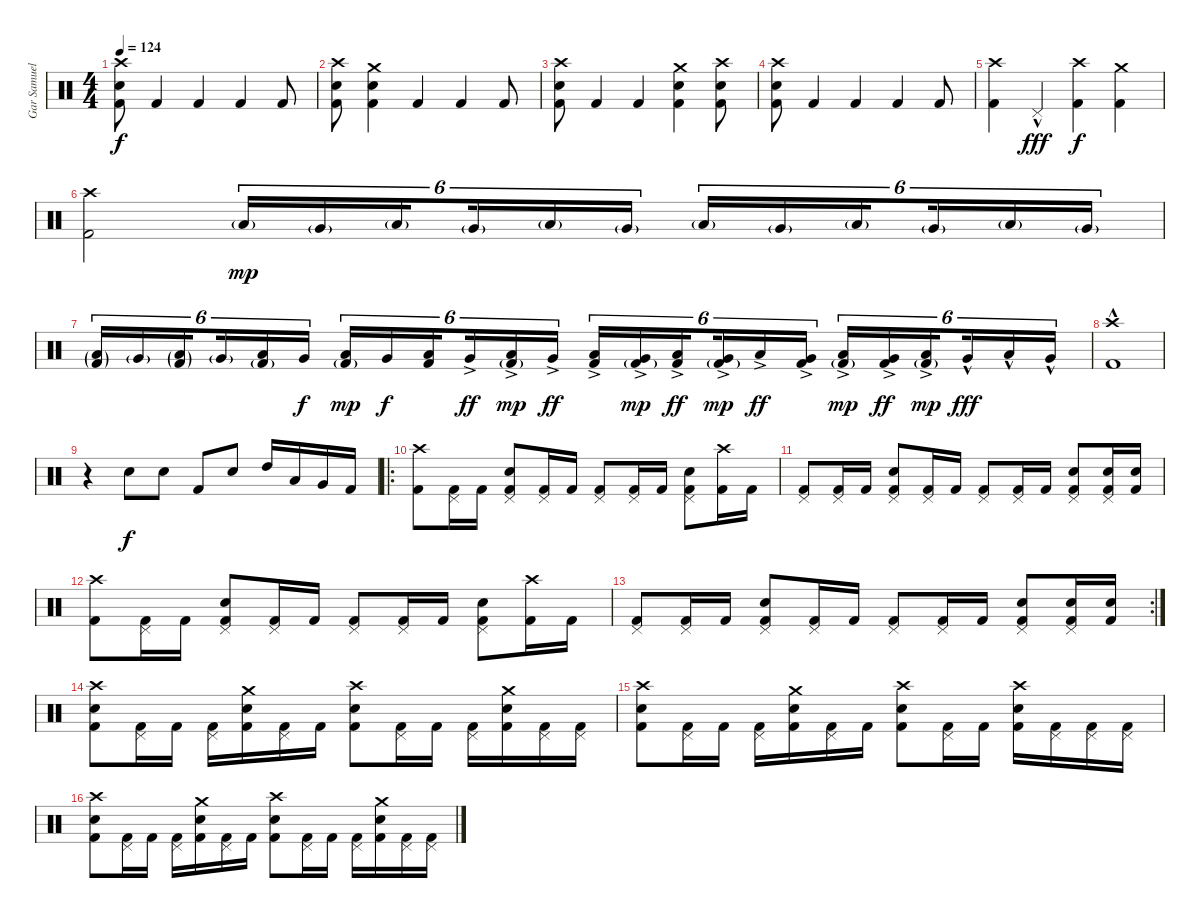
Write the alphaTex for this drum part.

\track ("Gar Samuelson" "Gar Samuel") {instrument percussion}
\staff {score}
\articulation defaults
\ts (4 4)
\tempo 124
\clef neutral
\ks c
("Crash high (hit)" "Electric Snare (hit)" "Kick (hit) 2").8{dy f} "Kick (hit) 2".4 "Kick (hit) 2".4 "Kick (hit) 2".4 "Kick (hit) 2".8 |
("Crash high (hit)" "Electric Snare (hit)" "Kick (hit) 2").8 ("Crash medium (hit)" "Electric Snare (hit)" "Kick (hit) 2").4 "Kick (hit) 2".4 "Kick (hit) 2".4 "Kick (hit) 2".8 |
("Crash high (hit)" "Electric Snare (hit)" "Kick (hit) 2").8 "Kick (hit) 2".4 "Kick (hit) 2".4 ("Crash medium (hit)" "Electric Snare (hit)" "Kick (hit) 2").4 ("Crash high (hit)" "Electric Snare (hit)" "Kick (hit) 2").8 |
("Crash high (hit)" "Electric Snare (hit)" "Kick (hit) 2").8 "Kick (hit) 2".4 "Kick (hit) 2".4 "Kick (hit) 2".4 "Kick (hit) 2".8 |
("Crash high (hit)" "Kick (hit) 2").4 "Pedal Hi-Hat (hit)"{hac}.4{dy fff} ("Crash high (hit)" "Kick (hit) 2").4{dy f} ("Crash medium (hit)" "Kick (hit) 2").4 |
("Crash high (hit)" "Kick (hit) 2").2 "Low Floor Tom (hit)"{g}.16{tu (6 4) dy mp} "Very Low Tom (hit)"{g}.16{tu (6 4)} "Low Floor Tom (hit)"{g}.16{tu (6 4) beam splitsecondary} "Very Low Tom (hit)"{g}.16{tu (6 4)} "Low Floor Tom (hit)"{g}.16{tu (6 4)} "Very Low Tom (hit)"{g}.16{tu (6 4)} "Low Floor Tom (hit)"{g}.16{tu (6 4)} "Very Low Tom (hit)"{g}.16{tu (6 4)} "Low Floor Tom (hit)"{g}.16{tu (6 4) beam splitsecondary} "Very Low Tom (hit)"{g}.16{tu (6 4)} "Low Floor Tom (hit)"{g}.16{tu (6 4)} "Very Low Tom (hit)"{g}.16{tu (6 4)} |
("Low Floor Tom (hit)"{g} "Kick (hit) 2"{g}).16{tu (6 4)} "Very Low Tom (hit)"{g}.16{tu (6 4)} ("Low Floor Tom (hit)"{g} "Kick (hit) 2"{g}).16{tu (6 4) beam splitsecondary} "Very Low Tom (hit)"{g}.16{tu (6 4)} ("Low Floor Tom (hit)" "Kick (hit) 2"{g}).16{tu (6 4)} "Very Low Tom (hit)".16{tu (6 4) dy f} ("Low Floor Tom (hit)" "Kick (hit) 2"{g}).16{tu (6 4) dy mp} "Very Low Tom (hit)".16{tu (6 4) dy f} ("Low Floor Tom (hit)" "Kick (hit) 2").16{tu (6 4) beam splitsecondary} "Very Low Tom (hit)"{ac}.16{tu (6 4) dy ff} ("Low Floor Tom (hit)"{ac} "Kick (hit) 2"{g}).16{tu (6 4) dy mp} "Very Low Tom (hit)"{ac}.16{tu (6 4) dy ff} ("Low Floor Tom (hit)"{ac} "Kick (hit) 2").16{tu (6 4)} ("Very Low Tom (hit)"{ac} "Kick (hit) 2"{g}).16{tu (6 4) dy mp} ("Low Floor Tom (hit)"{ac} "Kick (hit) 2").16{tu (6 4) dy ff beam splitsecondary} ("Very Low Tom (hit)"{ac} "Kick (hit) 2"{g}).16{tu (6 4) dy mp} "Low Floor Tom (hit)"{ac}.16{tu (6 4) dy ff} ("Very Low Tom (hit)"{ac} "Kick (hit) 2").16{tu (6 4)} ("Low Floor Tom (hit)"{ac} "Kick (hit) 2"{g}).16{tu (6 4) dy mp} ("Very Low Tom (hit)"{ac} "Kick (hit) 2").16{tu (6 4) dy ff} ("Low Floor Tom (hit)"{ac} "Kick (hit) 2"{g}).16{tu (6 4) dy mp beam splitsecondary} "Very Low Tom (hit)"{hac}.16{tu (6 4) dy fff} "Low Floor Tom (hit)"{hac}.16{tu (6 4)} "Very Low Tom (hit)"{hac}.16{tu (6 4)} |
("Crash high (hit)"{hac} "Kick (hit) 2"{hac}).1 |
r.4 "Electric Snare (hit)".8{dy f} "Electric Snare (hit)".8 "Kick (hit) 2".8 "Electric Snare (hit)".8 "High Tom (hit)".16 "Low Tom (hit)".16 "Very Low Tom (hit)".16 "Kick (hit) 2".16 |
\ro
("Crash high (hit)" "Kick (hit) 2").8 ("Pedal Hi-Hat (hit)" "Kick (hit) 2").16 "Kick (hit) 2".16 ("Pedal Hi-Hat (hit)" "Electric Snare (hit)" "Kick (hit) 2").8 ("Pedal Hi-Hat (hit)" "Kick (hit) 2").16 "Kick (hit) 2".16 ("Pedal Hi-Hat (hit)" "Kick (hit) 2").8 ("Pedal Hi-Hat (hit)" "Kick (hit) 2").16 "Kick (hit) 2".16 ("Pedal Hi-Hat (hit)" "Electric Snare (hit)" "Kick (hit) 2").8 ("Crash high (hit)" "Kick (hit) 2").16 "Kick (hit) 2".16 |
("Pedal Hi-Hat (hit)" "Kick (hit) 2").8 ("Pedal Hi-Hat (hit)" "Kick (hit) 2").16 "Kick (hit) 2".16 ("Pedal Hi-Hat (hit)" "Electric Snare (hit)" "Kick (hit) 2").8 ("Pedal Hi-Hat (hit)" "Kick (hit) 2").16 "Kick (hit) 2".16 ("Pedal Hi-Hat (hit)" "Kick (hit) 2").8 ("Pedal Hi-Hat (hit)" "Kick (hit) 2").16 "Kick (hit) 2".16 ("Pedal Hi-Hat (hit)" "Electric Snare (hit)" "Kick (hit) 2").8 ("Pedal Hi-Hat (hit)" "Electric Snare (hit)" "Kick (hit) 2").16 ("Electric Snare (hit)" "Kick (hit) 2").16 |
("Crash high (hit)" "Kick (hit) 2").8 ("Pedal Hi-Hat (hit)" "Kick (hit) 2").16 "Kick (hit) 2".16 ("Pedal Hi-Hat (hit)" "Electric Snare (hit)" "Kick (hit) 2").8 ("Pedal Hi-Hat (hit)" "Kick (hit) 2").16 "Kick (hit) 2".16 ("Pedal Hi-Hat (hit)" "Kick (hit) 2").8 ("Pedal Hi-Hat (hit)" "Kick (hit) 2").16 "Kick (hit) 2".16 ("Pedal Hi-Hat (hit)" "Electric Snare (hit)" "Kick (hit) 2").8 ("Crash high (hit)" "Kick (hit) 2").16 "Kick (hit) 2".16 |
\rc 2
("Pedal Hi-Hat (hit)" "Kick (hit) 2").8 ("Pedal Hi-Hat (hit)" "Kick (hit) 2").16 "Kick (hit) 2".16 ("Pedal Hi-Hat (hit)" "Electric Snare (hit)" "Kick (hit) 2").8 ("Pedal Hi-Hat (hit)" "Kick (hit) 2").16 "Kick (hit) 2".16 ("Pedal Hi-Hat (hit)" "Kick (hit) 2").8 ("Pedal Hi-Hat (hit)" "Kick (hit) 2").16 "Kick (hit) 2".16 ("Pedal Hi-Hat (hit)" "Electric Snare (hit)" "Kick (hit) 2").8 ("Pedal Hi-Hat (hit)" "Electric Snare (hit)" "Kick (hit) 2").16 ("Electric Snare (hit)" "Kick (hit) 2").16 |
("Crash high (hit)" "Electric Snare (hit)" "Kick (hit) 2").8 ("Pedal Hi-Hat (hit)" "Kick (hit) 2").16 "Kick (hit) 2".16 ("Pedal Hi-Hat (hit)" "Kick (hit) 2").16 ("Crash medium (hit)" "Electric Snare (hit)" "Kick (hit) 2").16 ("Pedal Hi-Hat (hit)" "Kick (hit) 2").16 "Kick (hit) 2".16 ("Crash high (hit)" "Electric Snare (hit)" "Kick (hit) 2").8 ("Pedal Hi-Hat (hit)" "Kick (hit) 2").16 "Kick (hit) 2".16 ("Pedal Hi-Hat (hit)" "Kick (hit) 2").16 ("Crash medium (hit)" "Electric Snare (hit)" "Kick (hit) 2").16 ("Pedal Hi-Hat (hit)" "Kick (hit) 2").16 ("Pedal Hi-Hat (hit)" "Kick (hit) 2").16 |
("Crash high (hit)" "Electric Snare (hit)" "Kick (hit) 2").8 ("Pedal Hi-Hat (hit)" "Kick (hit) 2").16 "Kick (hit) 2".16 ("Pedal Hi-Hat (hit)" "Kick (hit) 2").16 ("Crash medium (hit)" "Electric Snare (hit)" "Kick (hit) 2").16 ("Pedal Hi-Hat (hit)" "Kick (hit) 2").16 "Kick (hit) 2".16 ("Crash high (hit)" "Electric Snare (hit)" "Kick (hit) 2").8 ("Pedal Hi-Hat (hit)" "Kick (hit) 2").16 "Kick (hit) 2".16 ("Crash high (hit)" "Electric Snare (hit)" "Kick (hit) 2").16 ("Pedal Hi-Hat (hit)" "Kick (hit) 2").16 ("Pedal Hi-Hat (hit)" "Kick (hit) 2").16 ("Pedal Hi-Hat (hit)" "Kick (hit) 2").16 |
("Crash high (hit)" "Electric Snare (hit)" "Kick (hit) 2").8 ("Pedal Hi-Hat (hit)" "Kick (hit) 2").16 "Kick (hit) 2".16 ("Pedal Hi-Hat (hit)" "Kick (hit) 2").16 ("Crash medium (hit)" "Electric Snare (hit)" "Kick (hit) 2").16 ("Pedal Hi-Hat (hit)" "Kick (hit) 2").16 "Kick (hit) 2".16 ("Crash high (hit)" "Electric Snare (hit)" "Kick (hit) 2").8 ("Pedal Hi-Hat (hit)" "Kick (hit) 2").16 "Kick (hit) 2".16 ("Pedal Hi-Hat (hit)" "Kick (hit) 2").16 ("Crash medium (hit)" "Electric Snare (hit)" "Kick (hit) 2").16 ("Pedal Hi-Hat (hit)" "Kick (hit) 2").16 ("Pedal Hi-Hat (hit)" "Kick (hit) 2").16
